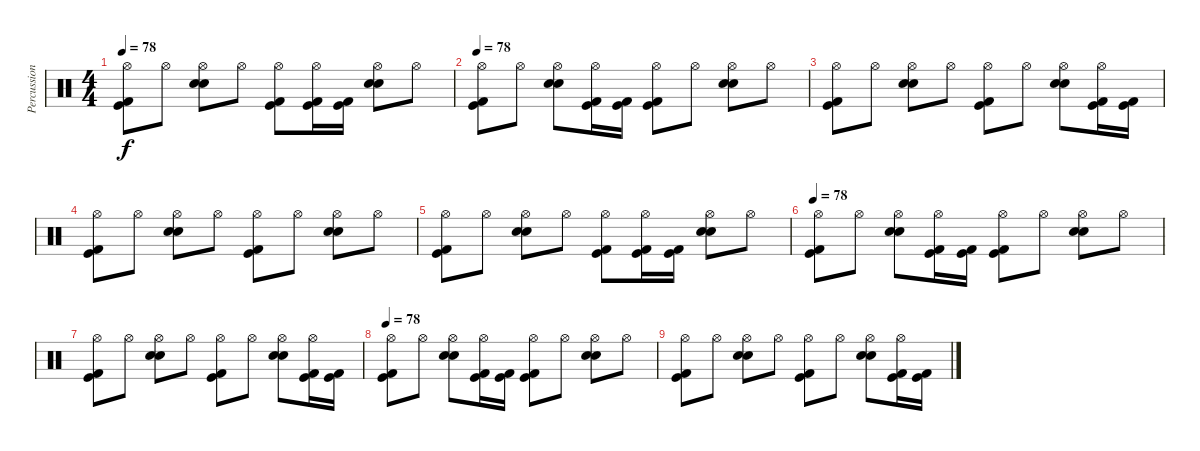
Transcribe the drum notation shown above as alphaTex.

\track ("Percussions" "Percussion") {instrument percussion}
\staff {score}
\articulation defaults
\ts (4 4)
\tempo 78
\clef neutral
\ks c
("Hi-Hat (open)" "Kick (hit) 2" "Kick (hit)").8{dy f} "Hi-Hat (open)".8 ("Hi-Hat (open)" "Snare (hit) 2" "Electric Snare (hit)").8 "Hi-Hat (open)".8 ("Hi-Hat (open)" "Kick (hit) 2" "Kick (hit)").8 ("Hi-Hat (open)" "Kick (hit) 2" "Kick (hit)").16 ("Kick (hit) 2" "Kick (hit)").16 ("Hi-Hat (open)" "Snare (hit) 2" "Electric Snare (hit)").8 "Hi-Hat (open)".8 |
\tempo 78
("Hi-Hat (open)" "Kick (hit) 2" "Kick (hit)").8 "Hi-Hat (open)".8 ("Hi-Hat (open)" "Snare (hit) 2" "Electric Snare (hit)").8 ("Hi-Hat (open)" "Kick (hit) 2" "Kick (hit)").16 ("Kick (hit) 2" "Kick (hit)").16 ("Hi-Hat (open)" "Kick (hit) 2" "Kick (hit)").8 "Hi-Hat (open)".8 ("Hi-Hat (open)" "Snare (hit) 2" "Electric Snare (hit)").8 "Hi-Hat (open)".8 |
("Hi-Hat (open)" "Kick (hit) 2" "Kick (hit)").8 "Hi-Hat (open)".8 ("Hi-Hat (open)" "Snare (hit) 2" "Electric Snare (hit)").8 "Hi-Hat (open)".8 ("Hi-Hat (open)" "Kick (hit) 2" "Kick (hit)").8 "Hi-Hat (open)".8 ("Hi-Hat (open)" "Snare (hit) 2" "Electric Snare (hit)").8 ("Hi-Hat (open)" "Kick (hit) 2" "Kick (hit)").16 ("Kick (hit) 2" "Kick (hit)").16 |
("Hi-Hat (open)" "Kick (hit) 2" "Kick (hit)").8 "Hi-Hat (open)".8 ("Hi-Hat (open)" "Snare (hit) 2" "Electric Snare (hit)").8 "Hi-Hat (open)".8 ("Hi-Hat (open)" "Kick (hit) 2" "Kick (hit)").8 "Hi-Hat (open)".8 ("Hi-Hat (open)" "Snare (hit) 2" "Electric Snare (hit)").8 "Hi-Hat (open)".8 |
("Hi-Hat (open)" "Kick (hit) 2" "Kick (hit)").8 "Hi-Hat (open)".8 ("Hi-Hat (open)" "Snare (hit) 2" "Electric Snare (hit)").8 "Hi-Hat (open)".8 ("Hi-Hat (open)" "Kick (hit) 2" "Kick (hit)").8 ("Hi-Hat (open)" "Kick (hit) 2" "Kick (hit)").16 ("Kick (hit) 2" "Kick (hit)").16 ("Hi-Hat (open)" "Snare (hit) 2" "Electric Snare (hit)").8 "Hi-Hat (open)".8 |
\tempo 78
("Hi-Hat (open)" "Kick (hit) 2" "Kick (hit)").8 "Hi-Hat (open)".8 ("Hi-Hat (open)" "Snare (hit) 2" "Electric Snare (hit)").8 ("Hi-Hat (open)" "Kick (hit) 2" "Kick (hit)").16 ("Kick (hit) 2" "Kick (hit)").16 ("Hi-Hat (open)" "Kick (hit) 2" "Kick (hit)").8 "Hi-Hat (open)".8 ("Hi-Hat (open)" "Snare (hit) 2" "Electric Snare (hit)").8 "Hi-Hat (open)".8 |
("Hi-Hat (open)" "Kick (hit) 2" "Kick (hit)").8 "Hi-Hat (open)".8 ("Hi-Hat (open)" "Snare (hit) 2" "Electric Snare (hit)").8 "Hi-Hat (open)".8 ("Hi-Hat (open)" "Kick (hit) 2" "Kick (hit)").8 "Hi-Hat (open)".8 ("Hi-Hat (open)" "Snare (hit) 2" "Electric Snare (hit)").8 ("Hi-Hat (open)" "Kick (hit) 2" "Kick (hit)").16 ("Kick (hit) 2" "Kick (hit)").16 |
\tempo 78
("Hi-Hat (open)" "Kick (hit) 2" "Kick (hit)").8 "Hi-Hat (open)".8 ("Hi-Hat (open)" "Snare (hit) 2" "Electric Snare (hit)").8 ("Hi-Hat (open)" "Kick (hit) 2" "Kick (hit)").16 ("Kick (hit) 2" "Kick (hit)").16 ("Hi-Hat (open)" "Kick (hit) 2" "Kick (hit)").8 "Hi-Hat (open)".8 ("Hi-Hat (open)" "Snare (hit) 2" "Electric Snare (hit)").8 "Hi-Hat (open)".8 |
("Hi-Hat (open)" "Kick (hit) 2" "Kick (hit)").8 "Hi-Hat (open)".8 ("Hi-Hat (open)" "Snare (hit) 2" "Electric Snare (hit)").8 "Hi-Hat (open)".8 ("Hi-Hat (open)" "Kick (hit) 2" "Kick (hit)").8 "Hi-Hat (open)".8 ("Hi-Hat (open)" "Snare (hit) 2" "Electric Snare (hit)").8 ("Hi-Hat (open)" "Kick (hit) 2" "Kick (hit)").16 ("Kick (hit) 2" "Kick (hit)").16
